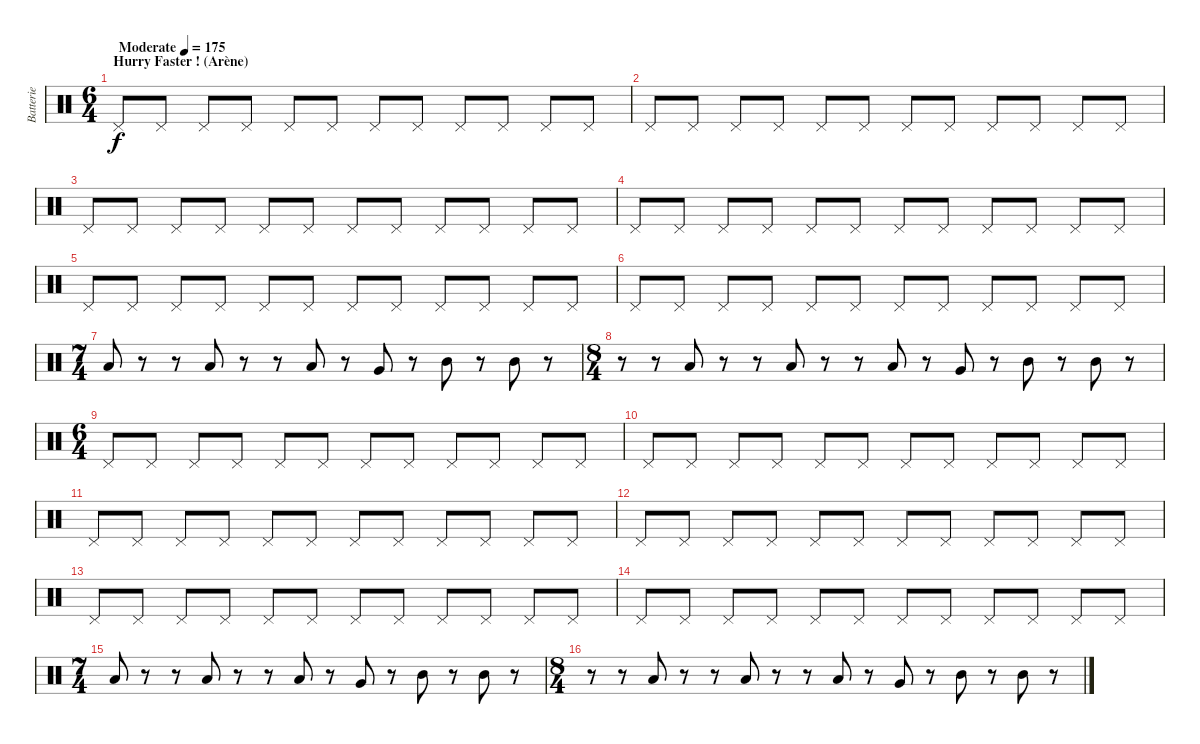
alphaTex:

\track ("Batterie" "Batterie") {instrument percussion}
\staff {score}
\articulation defaults
\ts (6 4)
\section ("" "Hurry Faster ! (Arène) ")
\tempo (175 "Moderate")
\clef neutral
\ks c "Pedal Hi-Hat (hit)".8{dy f} "Pedal Hi-Hat (hit)".8 "Pedal Hi-Hat (hit)".8 "Pedal Hi-Hat (hit)".8 "Pedal Hi-Hat (hit)".8 "Pedal Hi-Hat (hit)".8 "Pedal Hi-Hat (hit)".8 "Pedal Hi-Hat (hit)".8 "Pedal Hi-Hat (hit)".8 "Pedal Hi-Hat (hit)".8 "Pedal Hi-Hat (hit)".8 "Pedal Hi-Hat (hit)".8
|
"Pedal Hi-Hat (hit)".8 "Pedal Hi-Hat (hit)".8 "Pedal Hi-Hat (hit)".8 "Pedal Hi-Hat (hit)".8 "Pedal Hi-Hat (hit)".8 "Pedal Hi-Hat (hit)".8 "Pedal Hi-Hat (hit)".8 "Pedal Hi-Hat (hit)".8 "Pedal Hi-Hat (hit)".8 "Pedal Hi-Hat (hit)".8 "Pedal Hi-Hat (hit)".8 "Pedal Hi-Hat (hit)".8 |
"Pedal Hi-Hat (hit)".8 "Pedal Hi-Hat (hit)".8 "Pedal Hi-Hat (hit)".8 "Pedal Hi-Hat (hit)".8 "Pedal Hi-Hat (hit)".8 "Pedal Hi-Hat (hit)".8 "Pedal Hi-Hat (hit)".8 "Pedal Hi-Hat (hit)".8 "Pedal Hi-Hat (hit)".8 "Pedal Hi-Hat (hit)".8 "Pedal Hi-Hat (hit)".8 "Pedal Hi-Hat (hit)".8 |
"Pedal Hi-Hat (hit)".8 "Pedal Hi-Hat (hit)".8 "Pedal Hi-Hat (hit)".8 "Pedal Hi-Hat (hit)".8 "Pedal Hi-Hat (hit)".8 "Pedal Hi-Hat (hit)".8 "Pedal Hi-Hat (hit)".8 "Pedal Hi-Hat (hit)".8 "Pedal Hi-Hat (hit)".8 "Pedal Hi-Hat (hit)".8 "Pedal Hi-Hat (hit)".8 "Pedal Hi-Hat (hit)".8 |
"Pedal Hi-Hat (hit)".8 "Pedal Hi-Hat (hit)".8 "Pedal Hi-Hat (hit)".8 "Pedal Hi-Hat (hit)".8 "Pedal Hi-Hat (hit)".8 "Pedal Hi-Hat (hit)".8 "Pedal Hi-Hat (hit)".8 "Pedal Hi-Hat (hit)".8 "Pedal Hi-Hat (hit)".8 "Pedal Hi-Hat (hit)".8 "Pedal Hi-Hat (hit)".8 "Pedal Hi-Hat (hit)".8 |
"Pedal Hi-Hat (hit)".8 "Pedal Hi-Hat (hit)".8 "Pedal Hi-Hat (hit)".8 "Pedal Hi-Hat (hit)".8 "Pedal Hi-Hat (hit)".8 "Pedal Hi-Hat (hit)".8 "Pedal Hi-Hat (hit)".8 "Pedal Hi-Hat (hit)".8 "Pedal Hi-Hat (hit)".8 "Pedal Hi-Hat (hit)".8 "Pedal Hi-Hat (hit)".8 "Pedal Hi-Hat (hit)".8 |
\ts (7 4)
"Low Tom (hit)".8 r.8 r.8 "Low Tom (hit)".8 r.8 r.8 "Low Tom (hit)".8 r.8 "Very Low Tom (hit)".8 r.8 "Mid Tom (hit)".8 r.8 "Mid Tom (hit)".8 r.8 |
\ts (8 4)
r.8 r.8 "Low Tom (hit)".8 r.8 r.8 "Low Tom (hit)".8 r.8 r.8 "Low Tom (hit)".8 r.8 "Very Low Tom (hit)".8 r.8 "Mid Tom (hit)".8 r.8 "Mid Tom (hit)".8 r.8 |
\ts (6 4)
"Pedal Hi-Hat (hit)".8 "Pedal Hi-Hat (hit)".8 "Pedal Hi-Hat (hit)".8 "Pedal Hi-Hat (hit)".8 "Pedal Hi-Hat (hit)".8 "Pedal Hi-Hat (hit)".8 "Pedal Hi-Hat (hit)".8 "Pedal Hi-Hat (hit)".8 "Pedal Hi-Hat (hit)".8 "Pedal Hi-Hat (hit)".8 "Pedal Hi-Hat (hit)".8 "Pedal Hi-Hat (hit)".8 |
"Pedal Hi-Hat (hit)".8 "Pedal Hi-Hat (hit)".8 "Pedal Hi-Hat (hit)".8 "Pedal Hi-Hat (hit)".8 "Pedal Hi-Hat (hit)".8 "Pedal Hi-Hat (hit)".8 "Pedal Hi-Hat (hit)".8 "Pedal Hi-Hat (hit)".8 "Pedal Hi-Hat (hit)".8 "Pedal Hi-Hat (hit)".8 "Pedal Hi-Hat (hit)".8 "Pedal Hi-Hat (hit)".8 |
"Pedal Hi-Hat (hit)".8 "Pedal Hi-Hat (hit)".8 "Pedal Hi-Hat (hit)".8 "Pedal Hi-Hat (hit)".8 "Pedal Hi-Hat (hit)".8 "Pedal Hi-Hat (hit)".8 "Pedal Hi-Hat (hit)".8 "Pedal Hi-Hat (hit)".8 "Pedal Hi-Hat (hit)".8 "Pedal Hi-Hat (hit)".8 "Pedal Hi-Hat (hit)".8 "Pedal Hi-Hat (hit)".8 |
"Pedal Hi-Hat (hit)".8 "Pedal Hi-Hat (hit)".8 "Pedal Hi-Hat (hit)".8 "Pedal Hi-Hat (hit)".8 "Pedal Hi-Hat (hit)".8 "Pedal Hi-Hat (hit)".8 "Pedal Hi-Hat (hit)".8 "Pedal Hi-Hat (hit)".8 "Pedal Hi-Hat (hit)".8 "Pedal Hi-Hat (hit)".8 "Pedal Hi-Hat (hit)".8 "Pedal Hi-Hat (hit)".8 |
"Pedal Hi-Hat (hit)".8 "Pedal Hi-Hat (hit)".8 "Pedal Hi-Hat (hit)".8 "Pedal Hi-Hat (hit)".8 "Pedal Hi-Hat (hit)".8 "Pedal Hi-Hat (hit)".8 "Pedal Hi-Hat (hit)".8 "Pedal Hi-Hat (hit)".8 "Pedal Hi-Hat (hit)".8 "Pedal Hi-Hat (hit)".8 "Pedal Hi-Hat (hit)".8 "Pedal Hi-Hat (hit)".8 |
"Pedal Hi-Hat (hit)".8 "Pedal Hi-Hat (hit)".8 "Pedal Hi-Hat (hit)".8 "Pedal Hi-Hat (hit)".8 "Pedal Hi-Hat (hit)".8 "Pedal Hi-Hat (hit)".8 "Pedal Hi-Hat (hit)".8 "Pedal Hi-Hat (hit)".8 "Pedal Hi-Hat (hit)".8 "Pedal Hi-Hat (hit)".8 "Pedal Hi-Hat (hit)".8 "Pedal Hi-Hat (hit)".8 |
\ts (7 4)
"Low Tom (hit)".8 r.8 r.8 "Low Tom (hit)".8 r.8 r.8 "Low Tom (hit)".8 r.8 "Very Low Tom (hit)".8 r.8 "Mid Tom (hit)".8 r.8 "Mid Tom (hit)".8 r.8 |
\ts (8 4)
r.8 r.8 "Low Tom (hit)".8 r.8 r.8 "Low Tom (hit)".8 r.8 r.8 "Low Tom (hit)".8 r.8 "Very Low Tom (hit)".8 r.8 "Mid Tom (hit)".8 r.8 "Mid Tom (hit)".8 r.8
